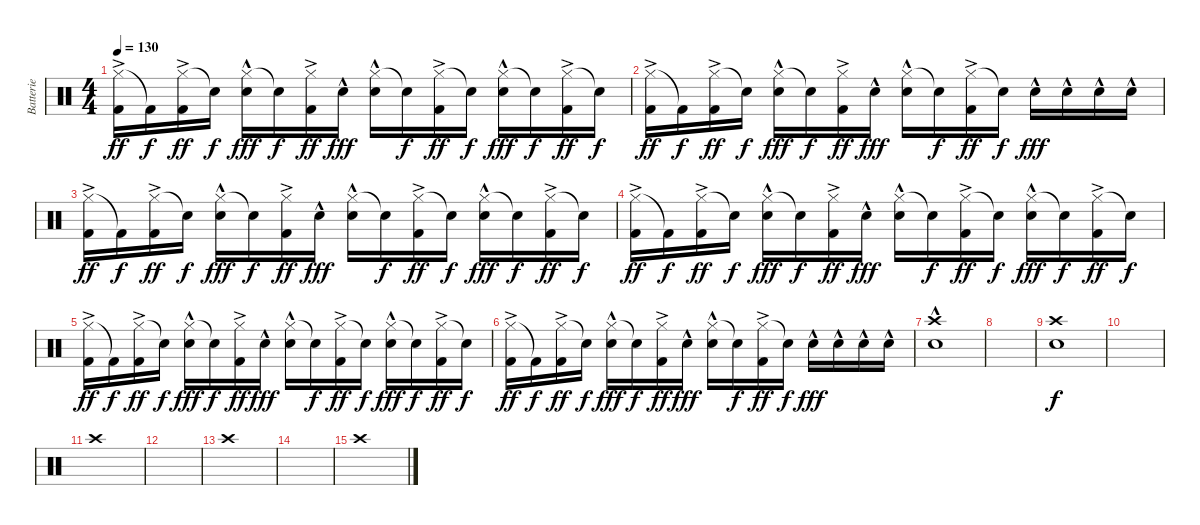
\track ("Batterie" "Batterie") {instrument percussion}
\staff {score}
\articulation defaults
\ts (4 4)
\tempo 130
\clef neutral
\ks c
("Hi-Hat (closed)"{ac} "Kick (hit) 2"{ac}).16{dy ff} "Kick (hit) 2"{t}.16{dy f} ("Hi-Hat (closed)"{ac} "Kick (hit) 2"{ac}).16{dy ff} "Snare (hit)"{t}.16{dy f} ("Hi-Hat (closed)" "Electric Snare (hit)"{hac}).16{dy fff} "Snare (hit)"{t}.16{dy f} ("Hi-Hat (closed)"{ac} "Kick (hit) 2"{ac}).16{dy ff} "Electric Snare (hit)"{hac}.16{dy fff} ("Hi-Hat (closed)" "Electric Snare (hit)"{hac}).16 "Snare (hit)"{t}.16{dy f} ("Hi-Hat (closed)"{ac} "Kick (hit) 2"{ac}).16{dy ff} "Snare (hit)"{t}.16{dy f} ("Hi-Hat (closed)" "Electric Snare (hit)"{hac}).16{dy fff} "Snare (hit)"{t}.16{dy f} ("Hi-Hat (closed)" "Kick (hit) 2"{ac}).16{dy ff} "Snare (hit)"{t}.16{dy f} |
("Hi-Hat (closed)"{ac} "Kick (hit) 2"{ac}).16{dy ff} "Kick (hit) 2"{t}.16{dy f} ("Hi-Hat (closed)"{ac} "Kick (hit) 2"{ac}).16{dy ff} "Snare (hit)"{t}.16{dy f} ("Hi-Hat (closed)" "Electric Snare (hit)"{hac}).16{dy fff} "Snare (hit)"{t}.16{dy f} ("Hi-Hat (closed)"{ac} "Kick (hit) 2"{ac}).16{dy ff} "Electric Snare (hit)"{hac}.16{dy fff} ("Hi-Hat (closed)" "Electric Snare (hit)"{hac}).16 "Snare (hit)"{t}.16{dy f} ("Hi-Hat (closed)"{ac} "Kick (hit) 2"{ac}).16{dy ff} "Snare (hit)"{t}.16{dy f} "Electric Snare (hit)"{hac}.16{dy fff} "Electric Snare (hit)"{hac}.16 "Electric Snare (hit)"{hac}.16 "Electric Snare (hit)"{hac}.16 |
("Hi-Hat (closed)"{ac} "Kick (hit) 2"{ac}).16{dy ff} "Kick (hit) 2"{t}.16{dy f} ("Hi-Hat (closed)"{ac} "Kick (hit) 2"{ac}).16{dy ff} "Snare (hit)"{t}.16{dy f} ("Hi-Hat (closed)" "Electric Snare (hit)"{hac}).16{dy fff} "Snare (hit)"{t}.16{dy f} ("Hi-Hat (closed)"{ac} "Kick (hit) 2"{ac}).16{dy ff} "Electric Snare (hit)"{hac}.16{dy fff} ("Hi-Hat (closed)" "Electric Snare (hit)"{hac}).16 "Snare (hit)"{t}.16{dy f} ("Hi-Hat (closed)"{ac} "Kick (hit) 2"{ac}).16{dy ff} "Snare (hit)"{t}.16{dy f} ("Hi-Hat (closed)" "Electric Snare (hit)"{hac}).16{dy fff} "Snare (hit)"{t}.16{dy f} ("Hi-Hat (closed)" "Kick (hit) 2"{ac}).16{dy ff} "Snare (hit)"{t}.16{dy f} |
("Hi-Hat (closed)"{ac} "Kick (hit) 2"{ac}).16{dy ff} "Kick (hit) 2"{t}.16{dy f} ("Hi-Hat (closed)"{ac} "Kick (hit) 2"{ac}).16{dy ff} "Snare (hit)"{t}.16{dy f} ("Hi-Hat (closed)" "Electric Snare (hit)"{hac}).16{dy fff} "Snare (hit)"{t}.16{dy f} ("Hi-Hat (closed)"{ac} "Kick (hit) 2"{ac}).16{dy ff} "Electric Snare (hit)"{hac}.16{dy fff} ("Hi-Hat (closed)" "Electric Snare (hit)"{hac}).16 "Snare (hit)"{t}.16{dy f} ("Hi-Hat (closed)"{ac} "Kick (hit) 2"{ac}).16{dy ff} "Snare (hit)"{t}.16{dy f} ("Hi-Hat (closed)" "Electric Snare (hit)"{hac}).16{dy fff} "Snare (hit)"{t}.16{dy f} ("Hi-Hat (closed)" "Kick (hit) 2"{ac}).16{dy ff} "Snare (hit)"{t}.16{dy f} |
("Hi-Hat (closed)"{ac} "Kick (hit) 2"{ac}).16{dy ff} "Kick (hit) 2"{t}.16{dy f} ("Hi-Hat (closed)"{ac} "Kick (hit) 2"{ac}).16{dy ff} "Snare (hit)"{t}.16{dy f} ("Hi-Hat (closed)" "Electric Snare (hit)"{hac}).16{dy fff} "Snare (hit)"{t}.16{dy f} ("Hi-Hat (closed)"{ac} "Kick (hit) 2"{ac}).16{dy ff} "Electric Snare (hit)"{hac}.16{dy fff} ("Hi-Hat (closed)" "Electric Snare (hit)"{hac}).16 "Snare (hit)"{t}.16{dy f} ("Hi-Hat (closed)"{ac} "Kick (hit) 2"{ac}).16{dy ff} "Snare (hit)"{t}.16{dy f} ("Hi-Hat (closed)" "Electric Snare (hit)"{hac}).16{dy fff} "Snare (hit)"{t}.16{dy f} ("Hi-Hat (closed)" "Kick (hit) 2"{ac}).16{dy ff} "Snare (hit)"{t}.16{dy f} |
("Hi-Hat (closed)"{ac} "Kick (hit) 2"{ac}).16{dy ff} "Kick (hit) 2"{t}.16{dy f} ("Hi-Hat (closed)"{ac} "Kick (hit) 2"{ac}).16{dy ff} "Snare (hit)"{t}.16{dy f} ("Hi-Hat (closed)" "Electric Snare (hit)"{hac}).16{dy fff} "Snare (hit)"{t}.16{dy f} ("Hi-Hat (closed)"{ac} "Kick (hit) 2"{ac}).16{dy ff} "Electric Snare (hit)"{hac}.16{dy fff} ("Hi-Hat (closed)" "Electric Snare (hit)"{hac}).16 "Snare (hit)"{t}.16{dy f} ("Hi-Hat (closed)"{ac} "Kick (hit) 2"{ac}).16{dy ff} "Snare (hit)"{t}.16{dy f} "Electric Snare (hit)"{hac}.16{dy fff} "Electric Snare (hit)"{hac}.16 "Electric Snare (hit)"{hac}.16 "Electric Snare (hit)"{hac}.16 |
("Crash high (hit)"{hac} "Electric Snare (hit)"{hac}).1 |
|
("Crash high (hit)" "Electric Snare (hit)").1{dy f} |
|
"Crash high (hit)".1 |
|
"Crash high (hit)".1 |
|
"Crash high (hit)".1
